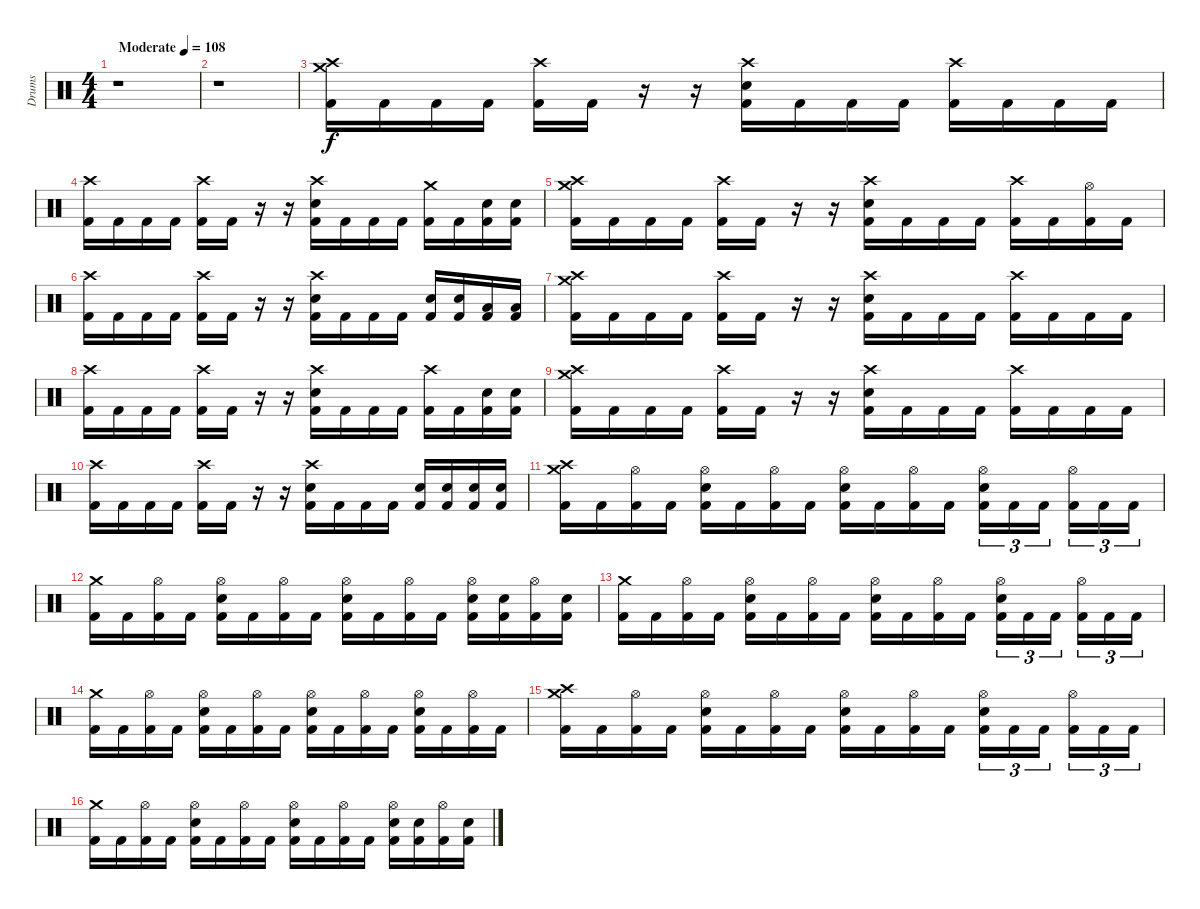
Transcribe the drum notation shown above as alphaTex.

\track ("Drums" "Drums") {instrument percussion}
\staff {score}
\articulation defaults
\ts (4 4)
\tempo (108 "Moderate")
\clef neutral
\ks c
r.1{dy f} |
r.1 |
("Crash medium (hit)" "Crash high (hit)" "Kick (hit) 2").16 "Kick (hit) 2".16 "Kick (hit) 2".16 "Kick (hit) 2".16 ("Crash high (hit)" "Kick (hit) 2").16 "Kick (hit) 2".16 r.16 r.16 ("Crash high (hit)" "Electric Snare (hit)" "Kick (hit) 2").16 "Kick (hit) 2".16 "Kick (hit) 2".16 "Kick (hit) 2".16 ("Crash high (hit)" "Kick (hit) 2").16 "Kick (hit) 2".16 "Kick (hit) 2".16 "Kick (hit) 2".16 |
("Crash high (hit)" "Kick (hit) 2").16 "Kick (hit) 2".16 "Kick (hit) 2".16 "Kick (hit) 2".16 ("Crash high (hit)" "Kick (hit) 2").16 "Kick (hit) 2".16 r.16 r.16 ("Crash high (hit)" "Electric Snare (hit)" "Kick (hit) 2").16 "Kick (hit) 2".16 "Kick (hit) 2".16 "Kick (hit) 2".16 ("Crash medium (hit)" "Kick (hit) 2").16 "Kick (hit) 2".16 ("Electric Snare (hit)" "Kick (hit) 2").16 ("Electric Snare (hit)" "Kick (hit) 2").16 |
("Crash high (hit)" "Crash medium (hit)" "Kick (hit) 2").16 "Kick (hit) 2".16 "Kick (hit) 2".16 "Kick (hit) 2".16 ("Crash high (hit)" "Kick (hit) 2").16 "Kick (hit) 2".16 r.16 r.16 ("Crash high (hit)" "Electric Snare (hit)" "Kick (hit) 2").16 "Kick (hit) 2".16 "Kick (hit) 2".16 "Kick (hit) 2".16 ("Crash high (hit)" "Kick (hit) 2").16 "Kick (hit) 2".16 ("Hi-Hat (open)" "Kick (hit) 2").16 "Kick (hit) 2".16 |
("Crash high (hit)" "Kick (hit) 2").16 "Kick (hit) 2".16 "Kick (hit) 2".16 "Kick (hit) 2".16 ("Crash high (hit)" "Kick (hit) 2").16 "Kick (hit) 2".16 r.16 r.16 ("Crash high (hit)" "Electric Snare (hit)" "Kick (hit) 2").16 "Kick (hit) 2".16 "Kick (hit) 2".16 "Kick (hit) 2".16 ("Electric Snare (hit)" "Kick (hit) 2").16 ("Electric Snare (hit)" "Kick (hit) 2").16 ("Low Tom (hit)" "Kick (hit) 2").16 ("Low Tom (hit)" "Kick (hit) 2").16 |
("Crash medium (hit)" "Crash high (hit)" "Kick (hit) 2").16 "Kick (hit) 2".16 "Kick (hit) 2".16 "Kick (hit) 2".16 ("Crash high (hit)" "Kick (hit) 2").16 "Kick (hit) 2".16 r.16 r.16 ("Crash high (hit)" "Electric Snare (hit)" "Kick (hit) 2").16 "Kick (hit) 2".16 "Kick (hit) 2".16 "Kick (hit) 2".16 ("Crash high (hit)" "Kick (hit) 2").16 "Kick (hit) 2".16 "Kick (hit) 2".16 "Kick (hit) 2".16 |
("Crash high (hit)" "Kick (hit) 2").16 "Kick (hit) 2".16 "Kick (hit) 2".16 "Kick (hit) 2".16 ("Crash high (hit)" "Kick (hit) 2").16 "Kick (hit) 2".16 r.16 r.16 ("Crash high (hit)" "Electric Snare (hit)" "Kick (hit) 2").16 "Kick (hit) 2".16 "Kick (hit) 2".16 "Kick (hit) 2".16 ("Crash high (hit)" "Kick (hit) 2").16 "Kick (hit) 2".16 ("Electric Snare (hit)" "Kick (hit) 2").16 ("Electric Snare (hit)" "Kick (hit) 2").16 |
("Crash high (hit)" "Crash medium (hit)" "Kick (hit) 2").16 "Kick (hit) 2".16 "Kick (hit) 2".16 "Kick (hit) 2".16 ("Crash high (hit)" "Kick (hit) 2").16 "Kick (hit) 2".16 r.16 r.16 ("Crash high (hit)" "Electric Snare (hit)" "Kick (hit) 2").16 "Kick (hit) 2".16 "Kick (hit) 2".16 "Kick (hit) 2".16 ("Crash high (hit)" "Kick (hit) 2").16 "Kick (hit) 2".16 "Kick (hit) 2".16 "Kick (hit) 2".16 |
("Crash high (hit)" "Kick (hit) 2").16 "Kick (hit) 2".16 "Kick (hit) 2".16 "Kick (hit) 2".16 ("Crash high (hit)" "Kick (hit) 2").16 "Kick (hit) 2".16 r.16 r.16 ("Crash high (hit)" "Electric Snare (hit)" "Kick (hit) 2").16 "Kick (hit) 2".16 "Kick (hit) 2".16 "Kick (hit) 2".16 ("Electric Snare (hit)" "Kick (hit) 2").16 ("Electric Snare (hit)" "Kick (hit) 2").16 ("Electric Snare (hit)" "Kick (hit) 2").16 ("Electric Snare (hit)" "Kick (hit) 2").16 |
("Crash medium (hit)" "Crash high (hit)" "Kick (hit) 2").16 "Kick (hit) 2".16 ("Hi-Hat (open)" "Kick (hit) 2").16 "Kick (hit) 2".16 ("Hi-Hat (open)" "Electric Snare (hit)" "Kick (hit) 2").16 "Kick (hit) 2".16 ("Hi-Hat (open)" "Kick (hit) 2").16 "Kick (hit) 2".16 ("Hi-Hat (open)" "Electric Snare (hit)" "Kick (hit) 2").16 "Kick (hit) 2".16 ("Hi-Hat (open)" "Kick (hit) 2").16 "Kick (hit) 2".16 ("Hi-Hat (open)" "Electric Snare (hit)" "Kick (hit) 2").16{tu (3 2)} "Kick (hit) 2".16{tu (3 2)} "Kick (hit) 2".16{tu (3 2) beam splitsecondary} ("Hi-Hat (open)" "Kick (hit) 2").16{tu (3 2)} "Kick (hit) 2".16{tu (3 2)} "Kick (hit) 2".16{tu (3 2)} |
("Crash medium (hit)" "Kick (hit) 2").16 "Kick (hit) 2".16 ("Hi-Hat (open)" "Kick (hit) 2").16 "Kick (hit) 2".16 ("Hi-Hat (open)" "Electric Snare (hit)" "Kick (hit) 2").16 "Kick (hit) 2".16 ("Hi-Hat (open)" "Kick (hit) 2").16 "Kick (hit) 2".16 ("Hi-Hat (open)" "Electric Snare (hit)" "Kick (hit) 2").16 "Kick (hit) 2".16 ("Hi-Hat (open)" "Kick (hit) 2").16 "Kick (hit) 2".16 ("Hi-Hat (open)" "Electric Snare (hit)" "Kick (hit) 2").16 ("Electric Snare (hit)" "Kick (hit) 2").16 ("Hi-Hat (open)" "Kick (hit) 2").16 ("Electric Snare (hit)" "Kick (hit) 2").16 |
("Crash medium (hit)" "Kick (hit) 2").16 "Kick (hit) 2".16 ("Hi-Hat (open)" "Kick (hit) 2").16 "Kick (hit) 2".16 ("Hi-Hat (open)" "Electric Snare (hit)" "Kick (hit) 2").16 "Kick (hit) 2".16 ("Hi-Hat (open)" "Kick (hit) 2").16 "Kick (hit) 2".16 ("Hi-Hat (open)" "Electric Snare (hit)" "Kick (hit) 2").16 "Kick (hit) 2".16 ("Hi-Hat (open)" "Kick (hit) 2").16 "Kick (hit) 2".16 ("Hi-Hat (open)" "Electric Snare (hit)" "Kick (hit) 2").16{tu (3 2)} "Kick (hit) 2".16{tu (3 2)} "Kick (hit) 2".16{tu (3 2) beam splitsecondary} ("Hi-Hat (open)" "Kick (hit) 2").16{tu (3 2)} "Kick (hit) 2".16{tu (3 2)} "Kick (hit) 2".16{tu (3 2)} |
("Crash medium (hit)" "Kick (hit) 2").16 "Kick (hit) 2".16 ("Hi-Hat (open)" "Kick (hit) 2").16 "Kick (hit) 2".16 ("Hi-Hat (open)" "Electric Snare (hit)" "Kick (hit) 2").16 "Kick (hit) 2".16 ("Hi-Hat (open)" "Kick (hit) 2").16 "Kick (hit) 2".16 ("Hi-Hat (open)" "Electric Snare (hit)" "Kick (hit) 2").16 "Kick (hit) 2".16 ("Hi-Hat (open)" "Kick (hit) 2").16 "Kick (hit) 2".16 ("Hi-Hat (open)" "Electric Snare (hit)" "Kick (hit) 2").16 "Kick (hit) 2".16 ("Hi-Hat (open)" "Kick (hit) 2").16 "Kick (hit) 2".16 |
("Crash medium (hit)" "Crash high (hit)" "Kick (hit) 2").16 "Kick (hit) 2".16 ("Hi-Hat (open)" "Kick (hit) 2").16 "Kick (hit) 2".16 ("Hi-Hat (open)" "Electric Snare (hit)" "Kick (hit) 2").16 "Kick (hit) 2".16 ("Hi-Hat (open)" "Kick (hit) 2").16 "Kick (hit) 2".16 ("Hi-Hat (open)" "Electric Snare (hit)" "Kick (hit) 2").16 "Kick (hit) 2".16 ("Hi-Hat (open)" "Kick (hit) 2").16 "Kick (hit) 2".16 ("Hi-Hat (open)" "Electric Snare (hit)" "Kick (hit) 2").16{tu (3 2)} "Kick (hit) 2".16{tu (3 2)} "Kick (hit) 2".16{tu (3 2) beam splitsecondary} ("Hi-Hat (open)" "Kick (hit) 2").16{tu (3 2)} "Kick (hit) 2".16{tu (3 2)} "Kick (hit) 2".16{tu (3 2)} |
("Crash medium (hit)" "Kick (hit) 2").16 "Kick (hit) 2".16 ("Hi-Hat (open)" "Kick (hit) 2").16 "Kick (hit) 2".16 ("Hi-Hat (open)" "Electric Snare (hit)" "Kick (hit) 2").16 "Kick (hit) 2".16 ("Hi-Hat (open)" "Kick (hit) 2").16 "Kick (hit) 2".16 ("Hi-Hat (open)" "Electric Snare (hit)" "Kick (hit) 2").16 "Kick (hit) 2".16 ("Hi-Hat (open)" "Kick (hit) 2").16 "Kick (hit) 2".16 ("Hi-Hat (open)" "Electric Snare (hit)" "Kick (hit) 2").16 ("Electric Snare (hit)" "Kick (hit) 2").16 ("Hi-Hat (open)" "Kick (hit) 2").16 ("Electric Snare (hit)" "Kick (hit) 2").16
